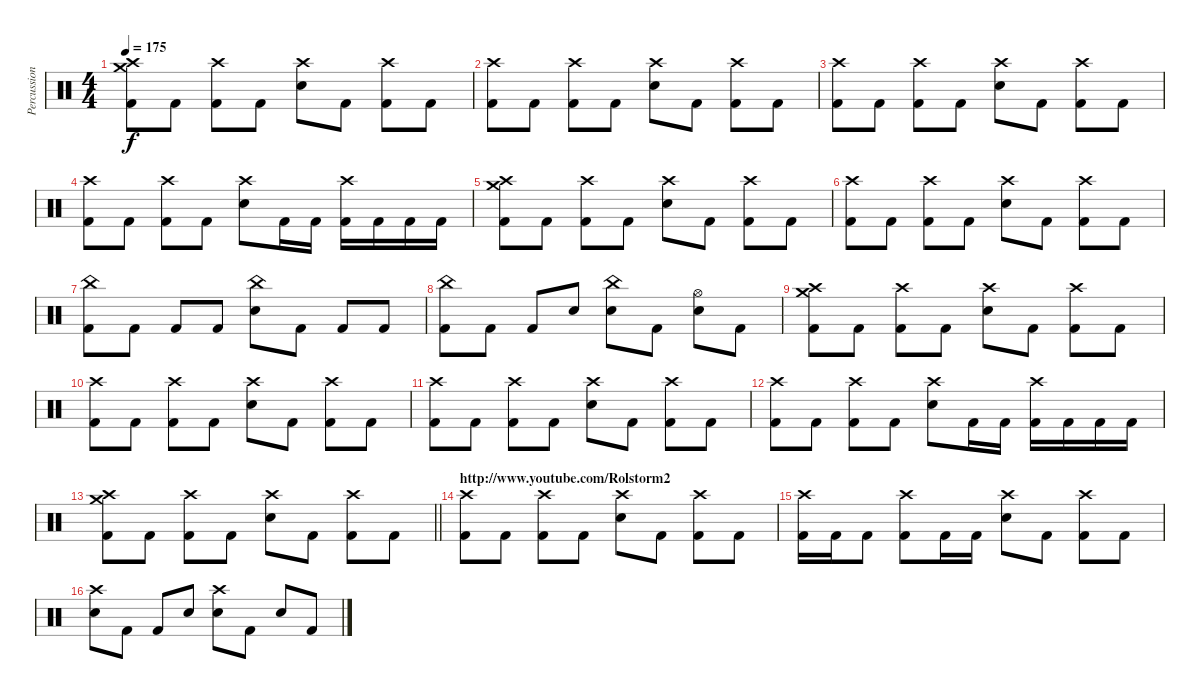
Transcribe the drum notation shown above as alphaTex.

\track ("Percussion" "Percussion") {instrument percussion}
\staff {score}
\articulation defaults
\ts (4 4)
\tempo 175
\clef neutral
\ks c
("Crash high (hit)" "Crash medium (hit)" "Kick (hit) 2").8{dy f} "Kick (hit) 2".8 ("Crash high (hit)" "Kick (hit) 2").8 "Kick (hit) 2".8 ("Crash high (hit)" "Electric Snare (hit)").8 "Kick (hit) 2".8 ("Crash high (hit)" "Kick (hit) 2").8 "Kick (hit) 2".8 |
("Crash high (hit)" "Kick (hit) 2").8 "Kick (hit) 2".8 ("Crash high (hit)" "Kick (hit) 2").8 "Kick (hit) 2".8 ("Crash high (hit)" "Electric Snare (hit)").8 "Kick (hit) 2".8 ("Crash high (hit)" "Kick (hit) 2").8 "Kick (hit) 2".8 |
("Crash high (hit)" "Kick (hit) 2").8 "Kick (hit) 2".8 ("Crash high (hit)" "Kick (hit) 2").8 "Kick (hit) 2".8 ("Crash high (hit)" "Electric Snare (hit)").8 "Kick (hit) 2".8 ("Crash high (hit)" "Kick (hit) 2").8 "Kick (hit) 2".8 |
("Crash high (hit)" "Kick (hit) 2").8 "Kick (hit) 2".8 ("Crash high (hit)" "Kick (hit) 2").8 "Kick (hit) 2".8 ("Crash high (hit)" "Electric Snare (hit)").8 "Kick (hit) 2".16 "Kick (hit) 2".16 ("Crash high (hit)" "Kick (hit) 2").16 "Kick (hit) 2".16 "Kick (hit) 2".16 "Kick (hit) 2".16 |
("Crash high (hit)" "Crash medium (hit)" "Kick (hit) 2").8 "Kick (hit) 2".8 ("Crash high (hit)" "Kick (hit) 2").8 "Kick (hit) 2".8 ("Crash high (hit)" "Electric Snare (hit)").8 "Kick (hit) 2".8 ("Crash high (hit)" "Kick (hit) 2").8 "Kick (hit) 2".8 |
("Crash high (hit)" "Kick (hit) 2").8 "Kick (hit) 2".8 ("Crash high (hit)" "Kick (hit) 2").8 "Kick (hit) 2".8 ("Crash high (hit)" "Electric Snare (hit)").8 "Kick (hit) 2".8 ("Crash high (hit)" "Kick (hit) 2").8 "Kick (hit) 2".8 |
("China (hit)" "Kick (hit) 2").8 "Kick (hit) 2".8 "Kick (hit) 2".8 "Kick (hit) 2".8 ("China (hit)" "Electric Snare (hit)").8 "Kick (hit) 2".8 "Kick (hit) 2".8 "Kick (hit) 2".8 |
("China (hit)" "Kick (hit) 2").8 "Kick (hit) 2".8 "Kick (hit) 2".8 "Electric Snare (hit)".8 ("China (hit)" "Electric Snare (hit)").8 "Kick (hit) 2".8 ("Hi-Hat (open)" "Electric Snare (hit)").8 "Kick (hit) 2".8 |
("Crash high (hit)" "Crash medium (hit)" "Kick (hit) 2").8 "Kick (hit) 2".8 ("Crash high (hit)" "Kick (hit) 2").8 "Kick (hit) 2".8 ("Crash high (hit)" "Electric Snare (hit)").8 "Kick (hit) 2".8 ("Crash high (hit)" "Kick (hit) 2").8 "Kick (hit) 2".8 |
("Crash high (hit)" "Kick (hit) 2").8 "Kick (hit) 2".8 ("Crash high (hit)" "Kick (hit) 2").8 "Kick (hit) 2".8 ("Crash high (hit)" "Electric Snare (hit)").8 "Kick (hit) 2".8 ("Crash high (hit)" "Kick (hit) 2").8 "Kick (hit) 2".8 |
("Crash high (hit)" "Kick (hit) 2").8 "Kick (hit) 2".8 ("Crash high (hit)" "Kick (hit) 2").8 "Kick (hit) 2".8 ("Crash high (hit)" "Electric Snare (hit)").8 "Kick (hit) 2".8 ("Crash high (hit)" "Kick (hit) 2").8 "Kick (hit) 2".8 |
("Crash high (hit)" "Kick (hit) 2").8 "Kick (hit) 2".8 ("Crash high (hit)" "Kick (hit) 2").8 "Kick (hit) 2".8 ("Crash high (hit)" "Electric Snare (hit)").8 "Kick (hit) 2".16 "Kick (hit) 2".16 ("Crash high (hit)" "Kick (hit) 2").16 "Kick (hit) 2".16 "Kick (hit) 2".16 "Kick (hit) 2".16 |
\barLineRight lightlight
("Crash high (hit)" "Crash medium (hit)" "Kick (hit) 2").8 "Kick (hit) 2".8 ("Crash high (hit)" "Kick (hit) 2").8 "Kick (hit) 2".8 ("Crash high (hit)" "Electric Snare (hit)").8 "Kick (hit) 2".8 ("Crash high (hit)" "Kick (hit) 2").8 "Kick (hit) 2".8 |
\section ("" "http://www.youtube.com/Rolstorm2")
("Crash high (hit)" "Kick (hit) 2").8 "Kick (hit) 2".8 ("Crash high (hit)" "Kick (hit) 2").8 "Kick (hit) 2".8 ("Crash high (hit)" "Electric Snare (hit)").8 "Kick (hit) 2".8 ("Crash high (hit)" "Kick (hit) 2").8 "Kick (hit) 2".8 |
("Crash high (hit)" "Kick (hit) 2").16 "Kick (hit) 2".16 "Kick (hit) 2".8 ("Crash high (hit)" "Kick (hit) 2").8 "Kick (hit) 2".16 "Kick (hit) 2".16 ("Crash high (hit)" "Electric Snare (hit)").8 "Kick (hit) 2".8 ("Crash high (hit)" "Kick (hit) 2").8 "Kick (hit) 2".8 |
("Crash high (hit)" "Electric Snare (hit)").8 "Kick (hit) 2".8 "Kick (hit) 2".8 "Electric Snare (hit)".8 ("Crash high (hit)" "Electric Snare (hit)").8 "Kick (hit) 2".8 "Electric Snare (hit)".8 "Kick (hit) 2".8
